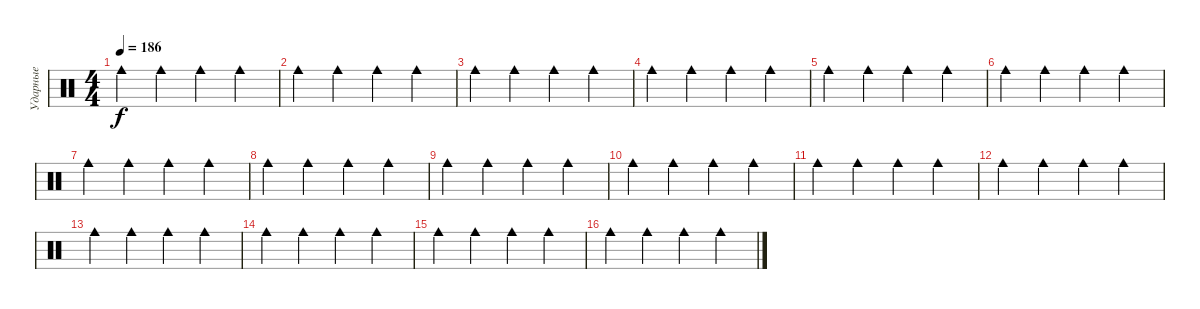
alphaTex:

\track ("Ударные" "Ударные") {mute instrument percussion}
\staff {score}
\articulation defaults
\ts (4 4)
\tempo 186
\clef neutral
\ks c "Cowbell medium (hit)".4{dy f} "Cowbell medium (hit)".4 "Cowbell medium (hit)".4 "Cowbell medium (hit)".4
|
"Cowbell medium (hit)".4 "Cowbell medium (hit)".4 "Cowbell medium (hit)".4 "Cowbell medium (hit)".4 |
"Cowbell medium (hit)".4 "Cowbell medium (hit)".4 "Cowbell medium (hit)".4 "Cowbell medium (hit)".4 |
"Cowbell medium (hit)".4 "Cowbell medium (hit)".4 "Cowbell medium (hit)".4 "Cowbell medium (hit)".4 |
"Cowbell medium (hit)".4 "Cowbell medium (hit)".4 "Cowbell medium (hit)".4 "Cowbell medium (hit)".4 |
"Cowbell medium (hit)".4 "Cowbell medium (hit)".4 "Cowbell medium (hit)".4 "Cowbell medium (hit)".4 |
"Cowbell medium (hit)".4 "Cowbell medium (hit)".4 "Cowbell medium (hit)".4 "Cowbell medium (hit)".4 |
"Cowbell medium (hit)".4 "Cowbell medium (hit)".4 "Cowbell medium (hit)".4 "Cowbell medium (hit)".4 |
"Cowbell medium (hit)".4 "Cowbell medium (hit)".4 "Cowbell medium (hit)".4 "Cowbell medium (hit)".4 |
"Cowbell medium (hit)".4 "Cowbell medium (hit)".4 "Cowbell medium (hit)".4 "Cowbell medium (hit)".4 |
"Cowbell medium (hit)".4 "Cowbell medium (hit)".4 "Cowbell medium (hit)".4 "Cowbell medium (hit)".4 |
"Cowbell medium (hit)".4 "Cowbell medium (hit)".4 "Cowbell medium (hit)".4 "Cowbell medium (hit)".4 |
"Cowbell medium (hit)".4 "Cowbell medium (hit)".4 "Cowbell medium (hit)".4 "Cowbell medium (hit)".4 |
"Cowbell medium (hit)".4 "Cowbell medium (hit)".4 "Cowbell medium (hit)".4 "Cowbell medium (hit)".4 |
"Cowbell medium (hit)".4 "Cowbell medium (hit)".4 "Cowbell medium (hit)".4 "Cowbell medium (hit)".4 |
"Cowbell medium (hit)".4 "Cowbell medium (hit)".4 "Cowbell medium (hit)".4 "Cowbell medium (hit)".4
